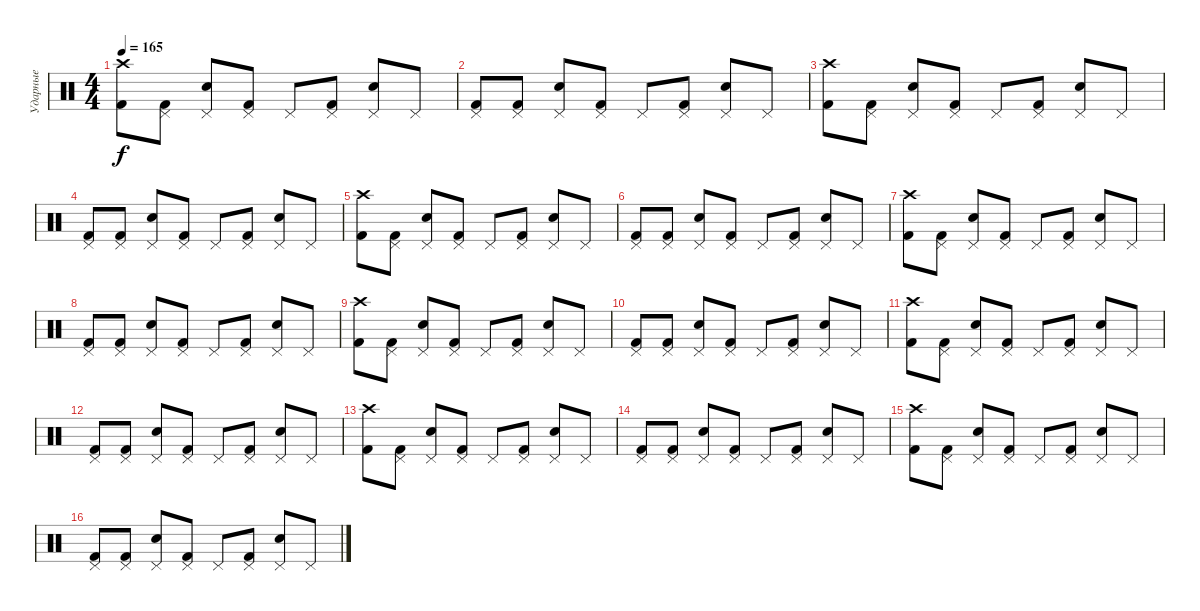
\track ("Ударные" "Ударные") {instrument percussion}
\staff {score}
\articulation defaults
\ts (4 4)
\tempo 165
\clef neutral
\ks c
("Crash high (hit)" "Kick (hit) 2").8{dy f} ("Pedal Hi-Hat (hit)" "Kick (hit) 2").8 ("Pedal Hi-Hat (hit)" "Electric Snare (hit)").8 ("Pedal Hi-Hat (hit)" "Kick (hit) 2").8 "Pedal Hi-Hat (hit)".8 ("Pedal Hi-Hat (hit)" "Kick (hit) 2").8 ("Pedal Hi-Hat (hit)" "Electric Snare (hit)").8 "Pedal Hi-Hat (hit)".8 |
("Pedal Hi-Hat (hit)" "Kick (hit) 2").8 ("Pedal Hi-Hat (hit)" "Kick (hit) 2").8 ("Pedal Hi-Hat (hit)" "Electric Snare (hit)").8 ("Pedal Hi-Hat (hit)" "Kick (hit) 2").8 "Pedal Hi-Hat (hit)".8 ("Pedal Hi-Hat (hit)" "Kick (hit) 2").8 ("Pedal Hi-Hat (hit)" "Electric Snare (hit)").8 "Pedal Hi-Hat (hit)".8 |
("Crash high (hit)" "Kick (hit) 2").8 ("Pedal Hi-Hat (hit)" "Kick (hit) 2").8 ("Pedal Hi-Hat (hit)" "Electric Snare (hit)").8 ("Pedal Hi-Hat (hit)" "Kick (hit) 2").8 "Pedal Hi-Hat (hit)".8 ("Pedal Hi-Hat (hit)" "Kick (hit) 2").8 ("Pedal Hi-Hat (hit)" "Electric Snare (hit)").8 "Pedal Hi-Hat (hit)".8 |
("Pedal Hi-Hat (hit)" "Kick (hit) 2").8 ("Pedal Hi-Hat (hit)" "Kick (hit) 2").8 ("Pedal Hi-Hat (hit)" "Electric Snare (hit)").8 ("Pedal Hi-Hat (hit)" "Kick (hit) 2").8 "Pedal Hi-Hat (hit)".8 ("Pedal Hi-Hat (hit)" "Kick (hit) 2").8 ("Pedal Hi-Hat (hit)" "Electric Snare (hit)").8 "Pedal Hi-Hat (hit)".8 |
("Crash high (hit)" "Kick (hit) 2").8 ("Pedal Hi-Hat (hit)" "Kick (hit) 2").8 ("Pedal Hi-Hat (hit)" "Electric Snare (hit)").8 ("Pedal Hi-Hat (hit)" "Kick (hit) 2").8 "Pedal Hi-Hat (hit)".8 ("Pedal Hi-Hat (hit)" "Kick (hit) 2").8 ("Pedal Hi-Hat (hit)" "Electric Snare (hit)").8 "Pedal Hi-Hat (hit)".8 |
("Pedal Hi-Hat (hit)" "Kick (hit) 2").8 ("Pedal Hi-Hat (hit)" "Kick (hit) 2").8 ("Pedal Hi-Hat (hit)" "Electric Snare (hit)").8 ("Pedal Hi-Hat (hit)" "Kick (hit) 2").8 "Pedal Hi-Hat (hit)".8 ("Pedal Hi-Hat (hit)" "Kick (hit) 2").8 ("Pedal Hi-Hat (hit)" "Electric Snare (hit)").8 "Pedal Hi-Hat (hit)".8 |
("Crash high (hit)" "Kick (hit) 2").8 ("Pedal Hi-Hat (hit)" "Kick (hit) 2").8 ("Pedal Hi-Hat (hit)" "Electric Snare (hit)").8 ("Pedal Hi-Hat (hit)" "Kick (hit) 2").8 "Pedal Hi-Hat (hit)".8 ("Pedal Hi-Hat (hit)" "Kick (hit) 2").8 ("Pedal Hi-Hat (hit)" "Electric Snare (hit)").8 "Pedal Hi-Hat (hit)".8 |
("Pedal Hi-Hat (hit)" "Kick (hit) 2").8 ("Pedal Hi-Hat (hit)" "Kick (hit) 2").8 ("Pedal Hi-Hat (hit)" "Electric Snare (hit)").8 ("Pedal Hi-Hat (hit)" "Kick (hit) 2").8 "Pedal Hi-Hat (hit)".8 ("Pedal Hi-Hat (hit)" "Kick (hit) 2").8 ("Pedal Hi-Hat (hit)" "Electric Snare (hit)").8 "Pedal Hi-Hat (hit)".8 |
("Crash high (hit)" "Kick (hit) 2").8 ("Pedal Hi-Hat (hit)" "Kick (hit) 2").8 ("Pedal Hi-Hat (hit)" "Electric Snare (hit)").8 ("Pedal Hi-Hat (hit)" "Kick (hit) 2").8 "Pedal Hi-Hat (hit)".8 ("Pedal Hi-Hat (hit)" "Kick (hit) 2").8 ("Pedal Hi-Hat (hit)" "Electric Snare (hit)").8 "Pedal Hi-Hat (hit)".8 |
("Pedal Hi-Hat (hit)" "Kick (hit) 2").8 ("Pedal Hi-Hat (hit)" "Kick (hit) 2").8 ("Pedal Hi-Hat (hit)" "Electric Snare (hit)").8 ("Pedal Hi-Hat (hit)" "Kick (hit) 2").8 "Pedal Hi-Hat (hit)".8 ("Pedal Hi-Hat (hit)" "Kick (hit) 2").8 ("Pedal Hi-Hat (hit)" "Electric Snare (hit)").8 "Pedal Hi-Hat (hit)".8 |
("Crash high (hit)" "Kick (hit) 2").8 ("Pedal Hi-Hat (hit)" "Kick (hit) 2").8 ("Pedal Hi-Hat (hit)" "Electric Snare (hit)").8 ("Pedal Hi-Hat (hit)" "Kick (hit) 2").8 "Pedal Hi-Hat (hit)".8 ("Pedal Hi-Hat (hit)" "Kick (hit) 2").8 ("Pedal Hi-Hat (hit)" "Electric Snare (hit)").8 "Pedal Hi-Hat (hit)".8 |
("Pedal Hi-Hat (hit)" "Kick (hit) 2").8 ("Pedal Hi-Hat (hit)" "Kick (hit) 2").8 ("Pedal Hi-Hat (hit)" "Electric Snare (hit)").8 ("Pedal Hi-Hat (hit)" "Kick (hit) 2").8 "Pedal Hi-Hat (hit)".8 ("Pedal Hi-Hat (hit)" "Kick (hit) 2").8 ("Pedal Hi-Hat (hit)" "Electric Snare (hit)").8 "Pedal Hi-Hat (hit)".8 |
("Crash high (hit)" "Kick (hit) 2").8 ("Pedal Hi-Hat (hit)" "Kick (hit) 2").8 ("Pedal Hi-Hat (hit)" "Electric Snare (hit)").8 ("Pedal Hi-Hat (hit)" "Kick (hit) 2").8 "Pedal Hi-Hat (hit)".8 ("Pedal Hi-Hat (hit)" "Kick (hit) 2").8 ("Pedal Hi-Hat (hit)" "Electric Snare (hit)").8 "Pedal Hi-Hat (hit)".8 |
("Pedal Hi-Hat (hit)" "Kick (hit) 2").8 ("Pedal Hi-Hat (hit)" "Kick (hit) 2").8 ("Pedal Hi-Hat (hit)" "Electric Snare (hit)").8 ("Pedal Hi-Hat (hit)" "Kick (hit) 2").8 "Pedal Hi-Hat (hit)".8 ("Pedal Hi-Hat (hit)" "Kick (hit) 2").8 ("Pedal Hi-Hat (hit)" "Electric Snare (hit)").8 "Pedal Hi-Hat (hit)".8 |
("Crash high (hit)" "Kick (hit) 2").8 ("Pedal Hi-Hat (hit)" "Kick (hit) 2").8 ("Pedal Hi-Hat (hit)" "Electric Snare (hit)").8 ("Pedal Hi-Hat (hit)" "Kick (hit) 2").8 "Pedal Hi-Hat (hit)".8 ("Pedal Hi-Hat (hit)" "Kick (hit) 2").8 ("Pedal Hi-Hat (hit)" "Electric Snare (hit)").8 "Pedal Hi-Hat (hit)".8 |
("Pedal Hi-Hat (hit)" "Kick (hit) 2").8 ("Pedal Hi-Hat (hit)" "Kick (hit) 2").8 ("Pedal Hi-Hat (hit)" "Electric Snare (hit)").8 ("Pedal Hi-Hat (hit)" "Kick (hit) 2").8 "Pedal Hi-Hat (hit)".8 ("Pedal Hi-Hat (hit)" "Kick (hit) 2").8 ("Pedal Hi-Hat (hit)" "Electric Snare (hit)").8 "Pedal Hi-Hat (hit)".8
